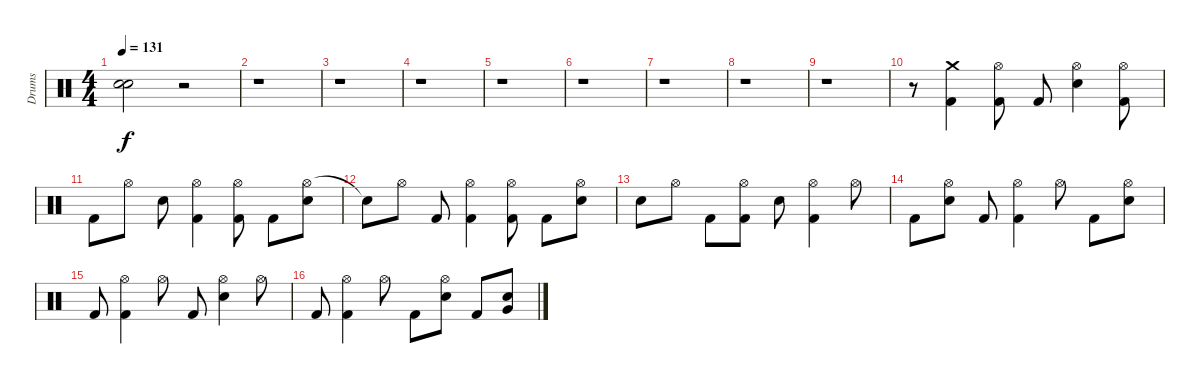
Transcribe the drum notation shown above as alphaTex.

\track ("Drums" "Drums") {instrument percussion}
\staff {score}
\articulation defaults
\ts (4 4)
\tempo 131
\clef neutral
\ks c
("Snare (hit)"{t} "Snare (hit)"{t}).2{dy f} r.2 |
r.1 |
r.1 |
r.1 |
r.1 |
r.1 |
r.1 |
r.1 |
r.1 |
r.8 ("Kick (hit) 2" "Crash medium (hit)").4 ("Hi-Hat (open)" "Kick (hit) 2").8 "Kick (hit) 2".8 ("Hi-Hat (open)" "Electric Snare (hit)").4 ("Hi-Hat (open)" "Kick (hit) 2").8 |
"Kick (hit) 2".8 "Hi-Hat (open)".8 "Electric Snare (hit)".8 ("Hi-Hat (open)" "Kick (hit) 2").4 ("Hi-Hat (open)" "Kick (hit) 2").8 "Kick (hit) 2".8 ("Hi-Hat (open)" "Electric Snare (hit)").8 |
"Snare (hit)"{t}.8 "Hi-Hat (open)".8 "Kick (hit) 2".8 ("Hi-Hat (open)" "Kick (hit) 2").4 ("Hi-Hat (open)" "Kick (hit) 2").8 "Kick (hit) 2".8 ("Hi-Hat (open)" "Electric Snare (hit)").8 |
"Electric Snare (hit)".8 "Hi-Hat (open)".8 "Kick (hit) 2".8 ("Hi-Hat (open)" "Kick (hit) 2").8 "Electric Snare (hit)".8 ("Hi-Hat (open)" "Kick (hit) 2").4 "Hi-Hat (open)".8 |
"Kick (hit) 2".8 ("Hi-Hat (open)" "Electric Snare (hit)").8 "Kick (hit) 2".8 ("Hi-Hat (open)" "Kick (hit) 2").4 "Hi-Hat (open)".8 "Kick (hit) 2".8 ("Hi-Hat (open)" "Electric Snare (hit)").8 |
"Kick (hit) 2".8 ("Hi-Hat (open)" "Kick (hit) 2").4 "Hi-Hat (open)".8 "Kick (hit) 2".8 ("Hi-Hat (open)" "Electric Snare (hit)").4 "Hi-Hat (open)".8 |
"Kick (hit) 2".8 ("Hi-Hat (open)" "Kick (hit) 2").4 "Hi-Hat (open)".8 "Kick (hit) 2".8 ("Hi-Hat (open)" "Electric Snare (hit)").8 "Kick (hit) 2".8 ("Very Low Tom (hit)" "Electric Snare (hit)").8
